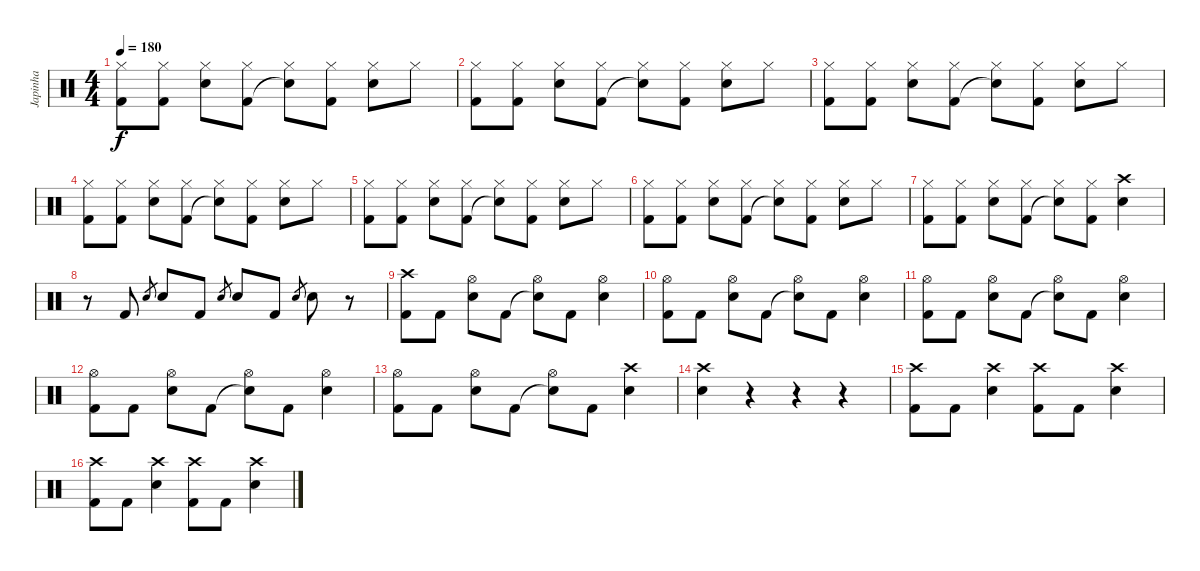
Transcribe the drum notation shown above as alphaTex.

\track ("Japinha" "Japinha") {instrument percussion}
\staff {score}
\articulation defaults
\ts (4 4)
\tempo 180
\clef neutral
\ks c
("Kick (hit) 2" "Hi-Hat (closed)").8{dy f} ("Kick (hit) 2" "Hi-Hat (closed)").8 ("Snare (hit) 2" "Hi-Hat (closed)").8 ("Kick (hit) 2" "Hi-Hat (closed)").8 ("Snare (hit)"{t} "Hi-Hat (closed)").8 ("Kick (hit) 2" "Hi-Hat (closed)").8 ("Snare (hit) 2" "Hi-Hat (closed)").8 "Hi-Hat (closed)".8 |
("Kick (hit) 2" "Hi-Hat (closed)").8 ("Kick (hit) 2" "Hi-Hat (closed)").8 ("Snare (hit) 2" "Hi-Hat (closed)").8 ("Kick (hit) 2" "Hi-Hat (closed)").8 ("Snare (hit)"{t} "Hi-Hat (closed)").8 ("Kick (hit) 2" "Hi-Hat (closed)").8 ("Snare (hit) 2" "Hi-Hat (closed)").8 "Hi-Hat (closed)".8 |
("Kick (hit) 2" "Hi-Hat (closed)").8 ("Kick (hit) 2" "Hi-Hat (closed)").8 ("Snare (hit) 2" "Hi-Hat (closed)").8 ("Kick (hit) 2" "Hi-Hat (closed)").8 ("Snare (hit)"{t} "Hi-Hat (closed)").8 ("Kick (hit) 2" "Hi-Hat (closed)").8 ("Snare (hit) 2" "Hi-Hat (closed)").8 "Hi-Hat (closed)".8 |
("Kick (hit) 2" "Hi-Hat (closed)").8 ("Kick (hit) 2" "Hi-Hat (closed)").8 ("Snare (hit) 2" "Hi-Hat (closed)").8 ("Kick (hit) 2" "Hi-Hat (closed)").8 ("Snare (hit)"{t} "Hi-Hat (closed)").8 ("Kick (hit) 2" "Hi-Hat (closed)").8 ("Snare (hit) 2" "Hi-Hat (closed)").8 "Hi-Hat (closed)".8 |
("Kick (hit) 2" "Hi-Hat (closed)").8 ("Kick (hit) 2" "Hi-Hat (closed)").8 ("Snare (hit) 2" "Hi-Hat (closed)").8 ("Kick (hit) 2" "Hi-Hat (closed)").8 ("Snare (hit)"{t} "Hi-Hat (closed)").8 ("Kick (hit) 2" "Hi-Hat (closed)").8 ("Snare (hit) 2" "Hi-Hat (closed)").8 "Hi-Hat (closed)".8 |
("Kick (hit) 2" "Hi-Hat (closed)").8 ("Kick (hit) 2" "Hi-Hat (closed)").8 ("Snare (hit) 2" "Hi-Hat (closed)").8 ("Kick (hit) 2" "Hi-Hat (closed)").8 ("Snare (hit)"{t} "Hi-Hat (closed)").8 ("Kick (hit) 2" "Hi-Hat (closed)").8 ("Snare (hit) 2" "Hi-Hat (closed)").8 "Hi-Hat (closed)".8 |
("Kick (hit) 2" "Hi-Hat (closed)").8 ("Kick (hit) 2" "Hi-Hat (closed)").8 ("Snare (hit) 2" "Hi-Hat (closed)").8 ("Kick (hit) 2" "Hi-Hat (closed)").8 ("Snare (hit)"{t} "Hi-Hat (closed)").8 ("Kick (hit) 2" "Hi-Hat (closed)").8 ("Snare (hit) 2" "Crash high (hit)").4 |
r.8 "Kick (hit) 2".8 "Snare (hit) 2".8{gr} "Snare (hit) 2".8 "Kick (hit) 2".8 "Snare (hit) 2".8{gr} "Snare (hit) 2".8 "Kick (hit) 2".8 "Snare (hit) 2".8{gr} "Snare (hit) 2".8 r.8 |
("Kick (hit) 2" "Crash high (hit)").8 "Kick (hit) 2".8 ("Snare (hit) 2" "Hi-Hat (open)").8 "Kick (hit) 2".8 ("Snare (hit)"{t} "Hi-Hat (open)").8 "Kick (hit) 2".8 ("Snare (hit) 2" "Hi-Hat (open)").4 |
("Kick (hit) 2" "Hi-Hat (open)").8 "Kick (hit) 2".8 ("Snare (hit) 2" "Hi-Hat (open)").8 "Kick (hit) 2".8 ("Snare (hit)"{t} "Hi-Hat (open)").8 "Kick (hit) 2".8 ("Snare (hit) 2" "Hi-Hat (open)").4 |
("Kick (hit) 2" "Hi-Hat (open)").8 "Kick (hit) 2".8 ("Snare (hit) 2" "Hi-Hat (open)").8 "Kick (hit) 2".8 ("Snare (hit)"{t} "Hi-Hat (open)").8 "Kick (hit) 2".8 ("Snare (hit) 2" "Hi-Hat (open)").4 |
("Kick (hit) 2" "Hi-Hat (open)").8 "Kick (hit) 2".8 ("Snare (hit) 2" "Hi-Hat (open)").8 "Kick (hit) 2".8 ("Snare (hit)"{t} "Hi-Hat (open)").8 "Kick (hit) 2".8 ("Snare (hit) 2" "Hi-Hat (open)").4 |
("Kick (hit) 2" "Hi-Hat (open)").8 "Kick (hit) 2".8 ("Snare (hit) 2" "Hi-Hat (open)").8 "Kick (hit) 2".8 ("Snare (hit)"{t} "Hi-Hat (open)").8 "Kick (hit) 2".8 ("Snare (hit) 2" "Crash high (hit)").4 |
("Snare (hit) 2" "Crash high (hit)").4 r.4 r.4 r.4 |
("Kick (hit) 2" "Crash high (hit)").8 "Kick (hit) 2".8 ("Snare (hit) 2" "Crash high (hit)").4 ("Kick (hit) 2" "Crash high (hit)").8 "Kick (hit) 2".8 ("Snare (hit) 2" "Crash high (hit)").4 |
("Kick (hit) 2" "Crash high (hit)").8 "Kick (hit) 2".8 ("Snare (hit) 2" "Crash high (hit)").4 ("Kick (hit) 2" "Crash high (hit)").8 "Kick (hit) 2".8 ("Snare (hit) 2" "Crash high (hit)").4
